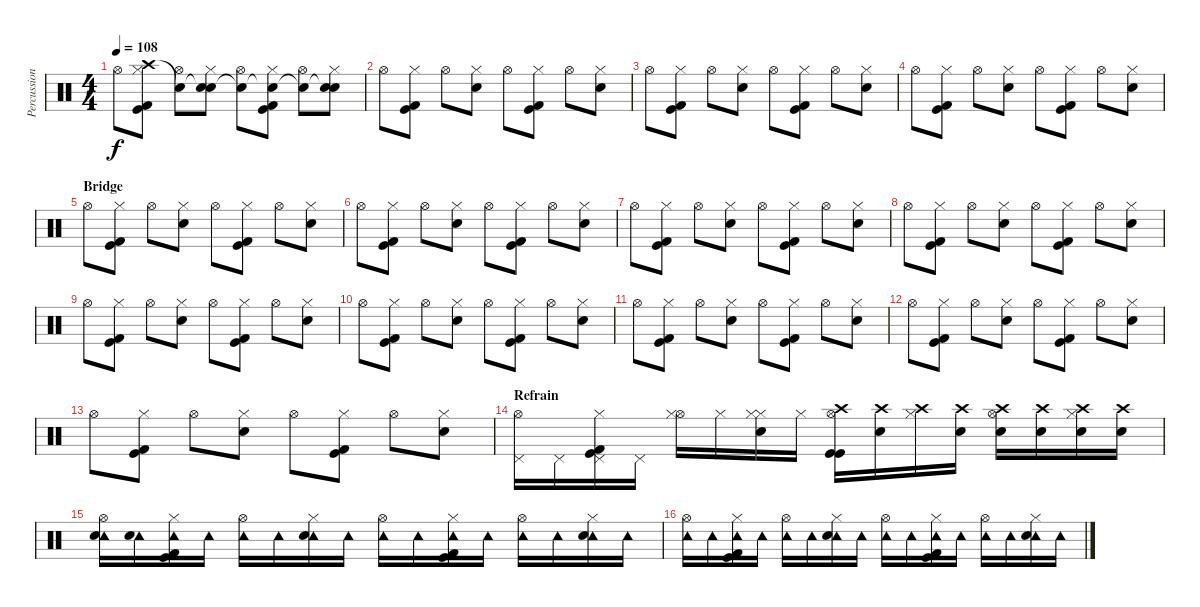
\track ("Percussion" "Percussion") {instrument percussion}
\staff {score}
\articulation defaults
\ts (4 4)
\tempo 108
\clef neutral
\ks c "Hi-Hat (open)".8{dy f}
("Hi-Hat (closed)" "Crash high (hit)" "Kick (hit)" "Kick (hit) 2").8 ("Hi-Hat (open)" "Snare (hit)"{t}).8 ("Hi-Hat (closed)" "Snare (hit)"{t} "Snare (hit) 2").8 ("Hi-Hat (open)" "Snare (hit)"{t}).8 ("Hi-Hat (closed)" "Snare (hit)"{t} "Kick (hit)" "Kick (hit) 2").8 ("Hi-Hat (open)" "Snare (hit)"{t}).8 ("Hi-Hat (closed)" "Snare (hit)"{t} "Snare (hit) 2").8 |
"Hi-Hat (open)".8 ("Hi-Hat (closed)" "Kick (hit)" "Kick (hit) 2").8 "Hi-Hat (open)".8 ("Hi-Hat (closed)" "Snare (hit) 2").8 "Hi-Hat (open)".8 ("Hi-Hat (closed)" "Kick (hit)" "Kick (hit) 2").8 "Hi-Hat (open)".8 ("Hi-Hat (closed)" "Snare (hit) 2").8 |
"Hi-Hat (open)".8 ("Hi-Hat (closed)" "Kick (hit)" "Kick (hit) 2").8 "Hi-Hat (open)".8 ("Hi-Hat (closed)" "Snare (hit) 2").8 "Hi-Hat (open)".8 ("Hi-Hat (closed)" "Kick (hit)" "Kick (hit) 2").8 "Hi-Hat (open)".8 ("Hi-Hat (closed)" "Snare (hit) 2").8 |
"Hi-Hat (open)".8 ("Hi-Hat (closed)" "Kick (hit)" "Kick (hit) 2").8 "Hi-Hat (open)".8 ("Hi-Hat (closed)" "Snare (hit) 2").8 "Hi-Hat (open)".8 ("Hi-Hat (closed)" "Kick (hit)" "Kick (hit) 2").8 "Hi-Hat (open)".8 ("Hi-Hat (closed)" "Snare (hit) 2").8 |
\section ("" "Bridge")
"Hi-Hat (open)".8 ("Hi-Hat (closed)" "Kick (hit)" "Kick (hit) 2").8 "Hi-Hat (open)".8 ("Hi-Hat (closed)" "Snare (hit) 2").8 "Hi-Hat (open)".8 ("Hi-Hat (closed)" "Kick (hit)" "Kick (hit) 2").8 "Hi-Hat (open)".8 ("Hi-Hat (closed)" "Snare (hit) 2").8 |
"Hi-Hat (open)".8 ("Hi-Hat (closed)" "Kick (hit)" "Kick (hit) 2").8 "Hi-Hat (open)".8 ("Hi-Hat (closed)" "Snare (hit) 2").8 "Hi-Hat (open)".8 ("Hi-Hat (closed)" "Kick (hit)" "Kick (hit) 2").8 "Hi-Hat (open)".8 ("Hi-Hat (closed)" "Snare (hit) 2").8 |
"Hi-Hat (open)".8 ("Hi-Hat (closed)" "Kick (hit)" "Kick (hit) 2").8 "Hi-Hat (open)".8 ("Hi-Hat (closed)" "Snare (hit) 2").8 "Hi-Hat (open)".8 ("Hi-Hat (closed)" "Kick (hit)" "Kick (hit) 2").8 "Hi-Hat (open)".8 ("Hi-Hat (closed)" "Snare (hit) 2").8 |
"Hi-Hat (open)".8 ("Hi-Hat (closed)" "Kick (hit)" "Kick (hit) 2").8 "Hi-Hat (open)".8 ("Hi-Hat (closed)" "Snare (hit) 2").8 "Hi-Hat (open)".8 ("Hi-Hat (closed)" "Kick (hit)" "Kick (hit) 2").8 "Hi-Hat (open)".8 ("Hi-Hat (closed)" "Snare (hit) 2").8 |
"Hi-Hat (open)".8 ("Hi-Hat (closed)" "Kick (hit)" "Kick (hit) 2").8 "Hi-Hat (open)".8 ("Hi-Hat (closed)" "Snare (hit) 2").8 "Hi-Hat (open)".8 ("Hi-Hat (closed)" "Kick (hit)" "Kick (hit) 2").8 "Hi-Hat (open)".8 ("Hi-Hat (closed)" "Snare (hit) 2").8 |
"Hi-Hat (open)".8 ("Hi-Hat (closed)" "Kick (hit)" "Kick (hit) 2").8 "Hi-Hat (open)".8 ("Hi-Hat (closed)" "Snare (hit) 2").8 "Hi-Hat (open)".8 ("Hi-Hat (closed)" "Kick (hit)" "Kick (hit) 2").8 "Hi-Hat (open)".8 ("Hi-Hat (closed)" "Snare (hit) 2").8 |
"Hi-Hat (open)".8 ("Hi-Hat (closed)" "Kick (hit)" "Kick (hit) 2").8 "Hi-Hat (open)".8 ("Hi-Hat (closed)" "Snare (hit) 2").8 "Hi-Hat (open)".8 ("Hi-Hat (closed)" "Kick (hit)" "Kick (hit) 2").8 "Hi-Hat (open)".8 ("Hi-Hat (closed)" "Snare (hit) 2").8 |
"Hi-Hat (open)".8 ("Hi-Hat (closed)" "Kick (hit)" "Kick (hit) 2").8 "Hi-Hat (open)".8 ("Hi-Hat (closed)" "Snare (hit) 2").8 "Hi-Hat (open)".8 ("Hi-Hat (closed)" "Kick (hit)" "Kick (hit) 2").8 "Hi-Hat (open)".8 ("Hi-Hat (closed)" "Snare (hit) 2").8 |
"Hi-Hat (open)".8 ("Hi-Hat (closed)" "Kick (hit)" "Kick (hit) 2").8 "Hi-Hat (open)".8 ("Hi-Hat (closed)" "Snare (hit) 2").8 "Hi-Hat (open)".8 ("Hi-Hat (closed)" "Kick (hit)" "Kick (hit) 2").8 "Hi-Hat (open)".8 ("Hi-Hat (closed)" "Snare (hit) 2").8 |
\section ("" "Refrain")
("Hi-Hat (open)" "Pedal Hi-Hat (hit)").16 "Pedal Hi-Hat (hit)".16 ("Hi-Hat (closed)" "Pedal Hi-Hat (hit)" "Kick (hit)" "Kick (hit) 2").16 "Pedal Hi-Hat (hit)".16 ("Hi-Hat (open)" "Hi-Hat (closed)").16 "Hi-Hat (closed)".16 ("Hi-Hat (closed)" "Hi-Hat (closed)" "Snare (hit) 2").16 "Hi-Hat (closed)".16 ("Hi-Hat (open)" "Crash high (hit)" "Kick (hit)" "Kick (hit)").16 ("Crash high (hit)" "Snare (hit) 2").16 ("Hi-Hat (closed)" "Crash high (hit)").16 ("Crash high (hit)" "Snare (hit) 2").16 ("Hi-Hat (open)" "Crash high (hit)" "Snare (hit) 2").16 ("Crash high (hit)" "Snare (hit) 2").16 ("Hi-Hat (closed)" "Crash high (hit)" "Snare (hit) 2").16 ("Crash high (hit)" "Snare (hit) 2").16 |
("Hi-Hat (open)" "Tambourine (hit)" "Snare (hit) 2").16 ("Tambourine (hit)" "Snare (hit) 2").16 ("Hi-Hat (closed)" "Tambourine (hit)" "Kick (hit)" "Kick (hit) 2").16 "Tambourine (hit)".16 ("Hi-Hat (open)" "Tambourine (hit)").16 "Tambourine (hit)".16 ("Hi-Hat (closed)" "Tambourine (hit)" "Snare (hit) 2").16 "Tambourine (hit)".16 ("Hi-Hat (open)" "Tambourine (hit)").16 "Tambourine (hit)".16 ("Hi-Hat (closed)" "Tambourine (hit)" "Kick (hit)" "Kick (hit) 2").16 "Tambourine (hit)".16 ("Hi-Hat (open)" "Tambourine (hit)").16 "Tambourine (hit)".16 ("Hi-Hat (closed)" "Tambourine (hit)" "Snare (hit) 2").16 "Tambourine (hit)".16 |
("Hi-Hat (open)" "Tambourine (hit)").16 "Tambourine (hit)".16 ("Hi-Hat (closed)" "Tambourine (hit)" "Kick (hit)" "Kick (hit) 2").16 "Tambourine (hit)".16 ("Hi-Hat (open)" "Tambourine (hit)").16 "Tambourine (hit)".16 ("Hi-Hat (closed)" "Tambourine (hit)" "Snare (hit) 2").16 "Tambourine (hit)".16 ("Hi-Hat (open)" "Tambourine (hit)").16 "Tambourine (hit)".16 ("Hi-Hat (closed)" "Tambourine (hit)" "Kick (hit)" "Kick (hit) 2").16 "Tambourine (hit)".16 ("Hi-Hat (open)" "Tambourine (hit)").16 "Tambourine (hit)".16 ("Hi-Hat (closed)" "Tambourine (hit)" "Snare (hit) 2").16 "Tambourine (hit)".16
